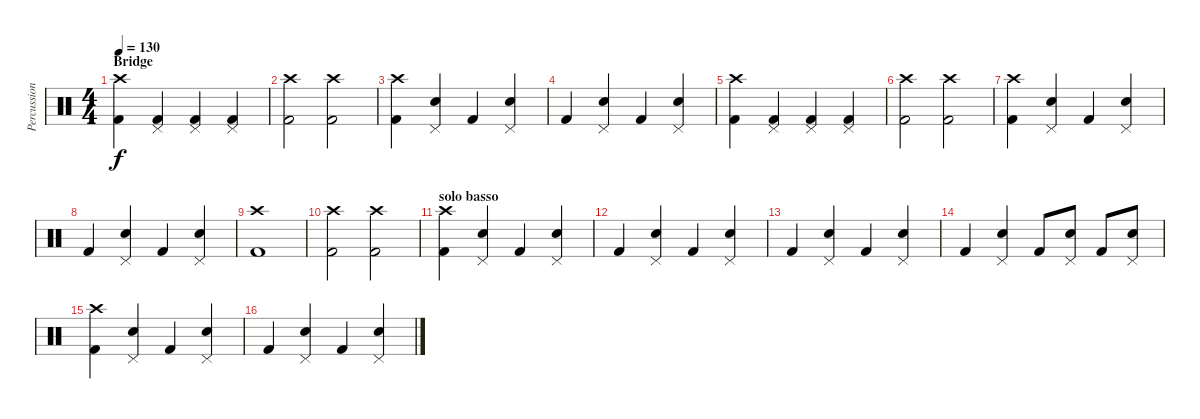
\track ("Percussioni" "Percussion") {instrument percussion}
\staff {score}
\articulation defaults
\ts (4 4)
\section ("" "Bridge")
\tempo 130
\clef neutral
\ks c
("Crash high (hit)" "Kick (hit) 2").4{dy f} ("Pedal Hi-Hat (hit)" "Kick (hit) 2").4 ("Pedal Hi-Hat (hit)" "Kick (hit) 2").4 ("Pedal Hi-Hat (hit)" "Kick (hit) 2").4 |
("Crash high (hit)" "Kick (hit) 2").2 ("Crash high (hit)" "Kick (hit) 2").2 |
("Crash high (hit)" "Kick (hit) 2").4{volume 13} ("Pedal Hi-Hat (hit)" "Snare (hit) 2").4 "Kick (hit) 2".4 ("Pedal Hi-Hat (hit)" "Snare (hit) 2").4 |
"Kick (hit) 2".4 ("Pedal Hi-Hat (hit)" "Snare (hit) 2").4 "Kick (hit) 2".4 ("Pedal Hi-Hat (hit)" "Snare (hit) 2").4 |
("Crash high (hit)" "Kick (hit) 2").4 ("Pedal Hi-Hat (hit)" "Kick (hit) 2").4 ("Pedal Hi-Hat (hit)" "Kick (hit) 2").4 ("Pedal Hi-Hat (hit)" "Kick (hit) 2").4 |
("Crash high (hit)" "Kick (hit) 2").2 ("Crash high (hit)" "Kick (hit) 2").2 |
("Crash high (hit)" "Kick (hit) 2").4{volume 13} ("Pedal Hi-Hat (hit)" "Snare (hit) 2").4 "Kick (hit) 2".4 ("Pedal Hi-Hat (hit)" "Snare (hit) 2").4 |
"Kick (hit) 2".4 ("Pedal Hi-Hat (hit)" "Snare (hit) 2").4 "Kick (hit) 2".4 ("Pedal Hi-Hat (hit)" "Snare (hit) 2").4 |
("Crash high (hit)" "Kick (hit) 2").1 |
("Crash high (hit)" "Kick (hit) 2").2 ("Crash high (hit)" "Kick (hit) 2").2 |
\section ("" "solo basso")
("Crash high (hit)" "Kick (hit) 2").4 ("Pedal Hi-Hat (hit)" "Snare (hit) 2").4 "Kick (hit) 2".4 ("Pedal Hi-Hat (hit)" "Snare (hit) 2").4 |
"Kick (hit) 2".4 ("Pedal Hi-Hat (hit)" "Snare (hit) 2").4 "Kick (hit) 2".4 ("Pedal Hi-Hat (hit)" "Snare (hit) 2").4 |
"Kick (hit) 2".4 ("Pedal Hi-Hat (hit)" "Snare (hit) 2").4 "Kick (hit) 2".4 ("Pedal Hi-Hat (hit)" "Snare (hit) 2").4 |
"Kick (hit) 2".4 ("Pedal Hi-Hat (hit)" "Snare (hit) 2").4 "Kick (hit) 2".8 ("Pedal Hi-Hat (hit)" "Snare (hit) 2").8 "Kick (hit) 2".8 ("Pedal Hi-Hat (hit)" "Snare (hit) 2").8 |
("Crash high (hit)" "Kick (hit) 2").4 ("Pedal Hi-Hat (hit)" "Snare (hit) 2").4 "Kick (hit) 2".4 ("Pedal Hi-Hat (hit)" "Snare (hit) 2").4 |
"Kick (hit) 2".4 ("Pedal Hi-Hat (hit)" "Snare (hit) 2").4 "Kick (hit) 2".4 ("Pedal Hi-Hat (hit)" "Snare (hit) 2").4
